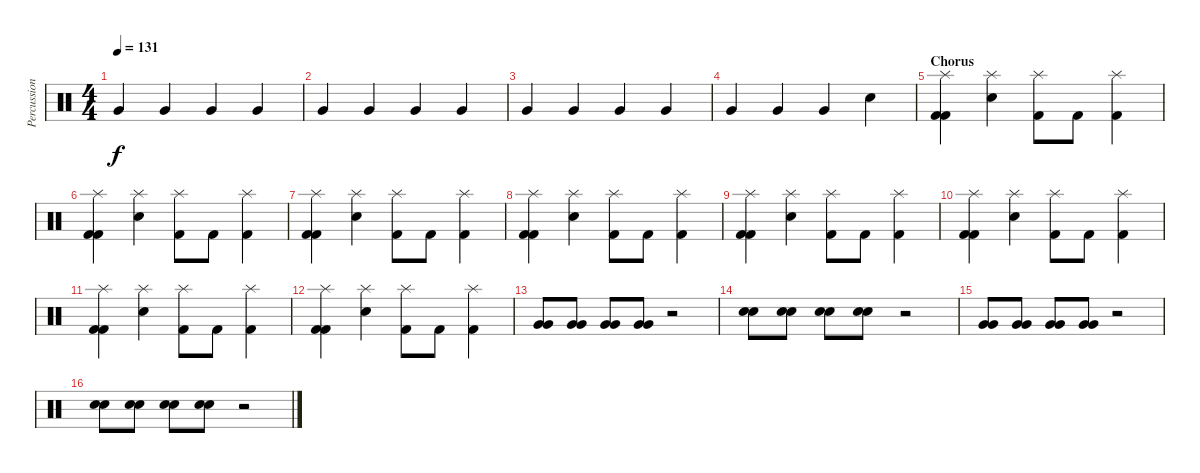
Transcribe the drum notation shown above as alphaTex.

\track ("Percussion" "Percussion") {instrument percussion}
\staff {score}
\articulation defaults
\ts (4 4)
\tempo 131
\clef neutral
\ks c "Very Low Tom (hit)".4{dy f} "Very Low Tom (hit)".4 "Very Low Tom (hit)".4 "Very Low Tom (hit)".4
|
"Very Low Tom (hit)".4 "Very Low Tom (hit)".4 "Very Low Tom (hit)".4 "Very Low Tom (hit)".4 |
"Very Low Tom (hit)".4 "Very Low Tom (hit)".4 "Very Low Tom (hit)".4 "Very Low Tom (hit)".4 |
"Very Low Tom (hit)".4 "Very Low Tom (hit)".4 "Very Low Tom (hit)".4 "Snare (hit) 2".4 |
\section ("" "Chorus")
("Splash (hit)" "Kick (hit) 2" "Kick (hit) 2").4 ("Splash (hit)" "Snare (hit) 2").4 ("Splash (hit)" "Kick (hit) 2").8 "Kick (hit) 2".8 ("Splash (hit)" "Kick (hit) 2").4 |
("Splash (hit)" "Kick (hit) 2" "Kick (hit) 2").4 ("Splash (hit)" "Snare (hit) 2").4 ("Splash (hit)" "Kick (hit) 2").8 "Kick (hit) 2".8 ("Splash (hit)" "Kick (hit) 2").4 |
("Splash (hit)" "Kick (hit) 2" "Kick (hit) 2").4 ("Splash (hit)" "Snare (hit) 2").4 ("Splash (hit)" "Kick (hit) 2").8 "Kick (hit) 2".8 ("Splash (hit)" "Kick (hit) 2").4 |
("Splash (hit)" "Kick (hit) 2" "Kick (hit) 2").4 ("Splash (hit)" "Snare (hit) 2").4 ("Splash (hit)" "Kick (hit) 2").8 "Kick (hit) 2".8 ("Splash (hit)" "Kick (hit) 2").4 |
("Splash (hit)" "Kick (hit) 2" "Kick (hit) 2").4 ("Splash (hit)" "Snare (hit) 2").4 ("Splash (hit)" "Kick (hit) 2").8 "Kick (hit) 2".8 ("Splash (hit)" "Kick (hit) 2").4 |
("Splash (hit)" "Kick (hit) 2" "Kick (hit) 2").4 ("Splash (hit)" "Snare (hit) 2").4 ("Splash (hit)" "Kick (hit) 2").8 "Kick (hit) 2".8 ("Splash (hit)" "Kick (hit) 2").4 |
("Splash (hit)" "Kick (hit) 2" "Kick (hit) 2").4 ("Splash (hit)" "Snare (hit) 2").4 ("Splash (hit)" "Kick (hit) 2").8 "Kick (hit) 2".8 ("Splash (hit)" "Kick (hit) 2").4 |
("Splash (hit)" "Kick (hit) 2" "Kick (hit) 2").4 ("Splash (hit)" "Snare (hit) 2").4 ("Splash (hit)" "Kick (hit) 2").8 "Kick (hit) 2".8 ("Splash (hit)" "Kick (hit) 2").4 |
("Very Low Tom (hit)" "Very Low Tom (hit)").8 ("Very Low Tom (hit)" "Very Low Tom (hit)").8 ("Very Low Tom (hit)" "Very Low Tom (hit)").8 ("Very Low Tom (hit)" "Very Low Tom (hit)").8 r.2 |
("Snare (hit) 2" "Snare (hit) 2").8 ("Snare (hit) 2" "Snare (hit) 2").8 ("Snare (hit) 2" "Snare (hit) 2").8 ("Snare (hit) 2" "Snare (hit) 2").8 r.2 |
("Very Low Tom (hit)" "Very Low Tom (hit)").8 ("Very Low Tom (hit)" "Very Low Tom (hit)").8 ("Very Low Tom (hit)" "Very Low Tom (hit)").8 ("Very Low Tom (hit)" "Very Low Tom (hit)").8 r.2 |
("Snare (hit) 2" "Snare (hit) 2").8 ("Snare (hit) 2" "Snare (hit) 2").8 ("Snare (hit) 2" "Snare (hit) 2").8 ("Snare (hit) 2" "Snare (hit) 2").8 r.2
